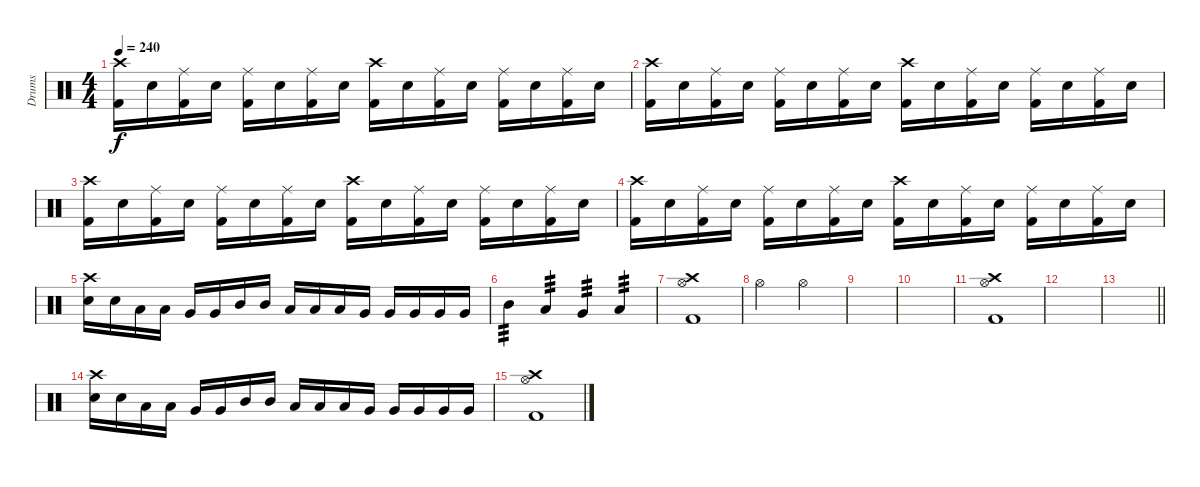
\track ("Drums" "Drums") {instrument percussion}
\staff {score}
\articulation defaults
\ts (4 4)
\tempo 240
\clef neutral
\ks c
("Crash high (hit)" "Kick (hit) 2").16{dy f} "Electric Snare (hit)".16 ("Ride (middle)" "Kick (hit) 2").16 "Electric Snare (hit)".16 ("Ride (middle)" "Kick (hit) 2").16 "Electric Snare (hit)".16 ("Ride (middle)" "Kick (hit) 2").16 "Electric Snare (hit)".16 ("Crash high (hit)" "Kick (hit) 2").16 "Electric Snare (hit)".16 ("Ride (middle)" "Kick (hit) 2").16 "Electric Snare (hit)".16 ("Ride (middle)" "Kick (hit) 2").16 "Electric Snare (hit)".16 ("Ride (middle)" "Kick (hit) 2").16 "Electric Snare (hit)".16 |
("Crash high (hit)" "Kick (hit) 2").16 "Electric Snare (hit)".16 ("Ride (middle)" "Kick (hit) 2").16 "Electric Snare (hit)".16 ("Ride (middle)" "Kick (hit) 2").16 "Electric Snare (hit)".16 ("Ride (middle)" "Kick (hit) 2").16 "Electric Snare (hit)".16 ("Crash high (hit)" "Kick (hit) 2").16 "Electric Snare (hit)".16 ("Ride (middle)" "Kick (hit) 2").16 "Electric Snare (hit)".16 ("Ride (middle)" "Kick (hit) 2").16 "Electric Snare (hit)".16 ("Ride (middle)" "Kick (hit) 2").16 "Electric Snare (hit)".16 |
("Crash high (hit)" "Kick (hit) 2").16 "Electric Snare (hit)".16 ("Ride (middle)" "Kick (hit) 2").16 "Electric Snare (hit)".16 ("Ride (middle)" "Kick (hit) 2").16 "Electric Snare (hit)".16 ("Ride (middle)" "Kick (hit) 2").16 "Electric Snare (hit)".16 ("Crash high (hit)" "Kick (hit) 2").16 "Electric Snare (hit)".16 ("Ride (middle)" "Kick (hit) 2").16 "Electric Snare (hit)".16 ("Ride (middle)" "Kick (hit) 2").16 "Electric Snare (hit)".16 ("Ride (middle)" "Kick (hit) 2").16 "Electric Snare (hit)".16 |
("Crash high (hit)" "Kick (hit) 2").16 "Electric Snare (hit)".16 ("Ride (middle)" "Kick (hit) 2").16 "Electric Snare (hit)".16 ("Ride (middle)" "Kick (hit) 2").16 "Electric Snare (hit)".16 ("Ride (middle)" "Kick (hit) 2").16 "Electric Snare (hit)".16 ("Crash high (hit)" "Kick (hit) 2").16 "Electric Snare (hit)".16 ("Ride (middle)" "Kick (hit) 2").16 "Electric Snare (hit)".16 ("Ride (middle)" "Kick (hit) 2").16 "Electric Snare (hit)".16 ("Ride (middle)" "Kick (hit) 2").16 "Electric Snare (hit)".16 |
("Crash high (hit)" "Snare (hit) 2").16 "Snare (hit) 2".16 "Low Tom (hit)".16 "Low Tom (hit)".16 "Very Low Tom (hit)".16 "Very Low Tom (hit)".16 "Mid Tom (hit)".16 "Mid Tom (hit)".16 "Low Tom (hit)".16 "Low Tom (hit)".16 "Low Tom (hit)".16 "Very Low Tom (hit)".16 "Very Low Tom (hit)".16 "Very Low Tom (hit)".16 "Very Low Tom (hit)".16 "Very Low Tom (hit)".16 |
"Mid Tom (hit)".4{tp 3} "Low Tom (hit)".4{tp 3} "Very Low Tom (hit)".4{tp 3} "Low Floor Tom (hit)".4{tp 3} |
("Crash high (hit)" "Hi-Hat (open)" "Kick (hit) 2").1 |
"Hi-Hat (open)".2 "Hi-Hat (open)".2 |
|
|
("Crash high (hit)" "Hi-Hat (open)" "Kick (hit) 2").1 |
|
\barLineRight lightlight
|
("Crash high (hit)" "Snare (hit) 2").16 "Snare (hit) 2".16 "Low Tom (hit)".16 "Low Tom (hit)".16 "Very Low Tom (hit)".16 "Very Low Tom (hit)".16 "Mid Tom (hit)".16 "Mid Tom (hit)".16 "Low Tom (hit)".16 "Low Tom (hit)".16 "Low Tom (hit)".16 "Very Low Tom (hit)".16 "Very Low Tom (hit)".16 "Very Low Tom (hit)".16 "Very Low Tom (hit)".16 "Very Low Tom (hit)".16 |
("Crash high (hit)" "Hi-Hat (open)" "Kick (hit) 2").1
